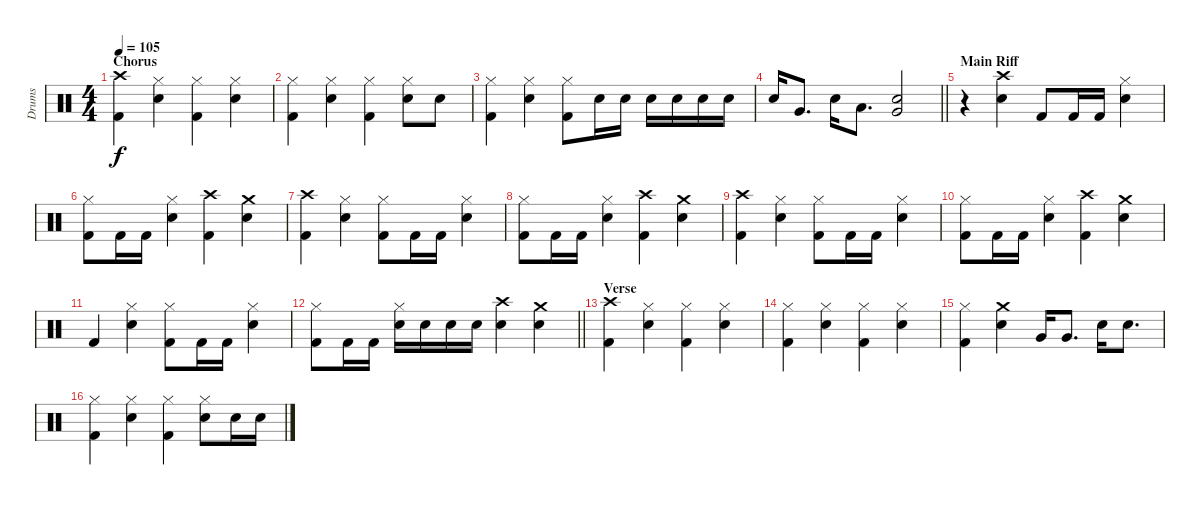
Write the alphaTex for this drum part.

\track ("Drums" "Drums") {instrument percussion}
\staff {score}
\articulation defaults
\ts (4 4)
\section ("" "Chorus")
\tempo 105
\clef neutral
\ks c
("Crash high (hit)" "Kick (hit) 2").4{dy f} ("Hi-Hat (closed)" "Snare (hit) 2").4 ("Hi-Hat (closed)" "Kick (hit) 2").4 ("Hi-Hat (closed)" "Snare (hit) 2").4 |
("Hi-Hat (closed)" "Kick (hit) 2").4 ("Hi-Hat (closed)" "Snare (hit) 2").4 ("Hi-Hat (closed)" "Kick (hit) 2").4 ("Hi-Hat (closed)" "Snare (hit) 2").8 "Snare (hit) 2".8 |
("Hi-Hat (closed)" "Kick (hit) 2").4 ("Hi-Hat (closed)" "Snare (hit) 2").4 ("Hi-Hat (closed)" "Kick (hit) 2").8 "Snare (hit) 2".16 "Snare (hit) 2".16 "Snare (hit) 2".16 "Snare (hit) 2".16 "Snare (hit) 2".16 "Snare (hit) 2".16 |
\barLineRight lightlight "Snare (hit) 2".16 "Very Low Tom (hit)".8{d} "Snare (hit) 2".16 "Low Tom (hit)".8{d}
("Very Low Tom (hit)" "Snare (hit) 2").2 |
\section ("" "Main Riff")
r.4 ("Crash high (hit)" "Snare (hit) 2").4 "Kick (hit) 2".8 "Kick (hit) 2".16 "Kick (hit) 2".16 ("Hi-Hat (closed)" "Snare (hit) 2").4 |
("Hi-Hat (closed)" "Kick (hit) 2").8 "Kick (hit) 2".16 "Kick (hit) 2".16 ("Hi-Hat (closed)" "Snare (hit) 2").4 ("Crash high (hit)" "Kick (hit) 2").4 ("Crash medium (hit)" "Snare (hit) 2").4 |
("Crash high (hit)" "Kick (hit) 2").4 ("Hi-Hat (closed)" "Snare (hit) 2").4 ("Hi-Hat (closed)" "Kick (hit) 2").8 "Kick (hit) 2".16 "Kick (hit) 2".16 ("Hi-Hat (closed)" "Snare (hit) 2").4 |
("Hi-Hat (closed)" "Kick (hit) 2").8 "Kick (hit) 2".16 "Kick (hit) 2".16 ("Hi-Hat (closed)" "Snare (hit) 2").4 ("Crash high (hit)" "Kick (hit) 2").4 ("Crash medium (hit)" "Snare (hit) 2").4 |
("Crash high (hit)" "Kick (hit) 2").4 ("Hi-Hat (closed)" "Snare (hit) 2").4 ("Hi-Hat (closed)" "Kick (hit) 2").8 "Kick (hit) 2".16 "Kick (hit) 2".16 ("Hi-Hat (closed)" "Snare (hit) 2").4 |
("Hi-Hat (closed)" "Kick (hit) 2").8 "Kick (hit) 2".16 "Kick (hit) 2".16 ("Hi-Hat (closed)" "Snare (hit) 2").4 ("Crash high (hit)" "Kick (hit) 2").4 ("Crash medium (hit)" "Snare (hit) 2").4 |
"Kick (hit) 2".4 ("Hi-Hat (closed)" "Snare (hit) 2").4 ("Hi-Hat (closed)" "Kick (hit) 2").8 "Kick (hit) 2".16 "Kick (hit) 2".16 ("Hi-Hat (closed)" "Snare (hit) 2").4 |
\barLineRight lightlight
("Hi-Hat (closed)" "Kick (hit) 2").8 "Kick (hit) 2".16 "Kick (hit) 2".16 ("Hi-Hat (closed)" "Snare (hit) 2").16 "Snare (hit) 2".16 "Snare (hit) 2".16 "Snare (hit) 2".16 ("Crash high (hit)" "Snare (hit) 2").4 ("Crash medium (hit)" "Snare (hit) 2").4 |
\section ("" "Verse")
("Crash high (hit)" "Kick (hit) 2").4 ("Hi-Hat (closed)" "Snare (hit) 2").4 ("Hi-Hat (closed)" "Kick (hit) 2").4 ("Hi-Hat (closed)" "Snare (hit) 2").4 |
("Hi-Hat (closed)" "Kick (hit) 2").4 ("Hi-Hat (closed)" "Snare (hit) 2").4 ("Hi-Hat (closed)" "Kick (hit) 2").4 ("Hi-Hat (closed)" "Snare (hit) 2").4 |
("Hi-Hat (closed)" "Kick (hit) 2").4 ("Crash medium (hit)" "Snare (hit) 2").4 "Very Low Tom (hit)".16 "Very Low Tom (hit)".8{d} "Snare (hit) 2".16 "Snare (hit) 2".8{d} |
("Hi-Hat (closed)" "Kick (hit) 2").4 ("Hi-Hat (closed)" "Snare (hit) 2").4 ("Hi-Hat (closed)" "Kick (hit) 2").4 ("Hi-Hat (closed)" "Snare (hit) 2").8 "Snare (hit) 2".16 "Snare (hit) 2".16
